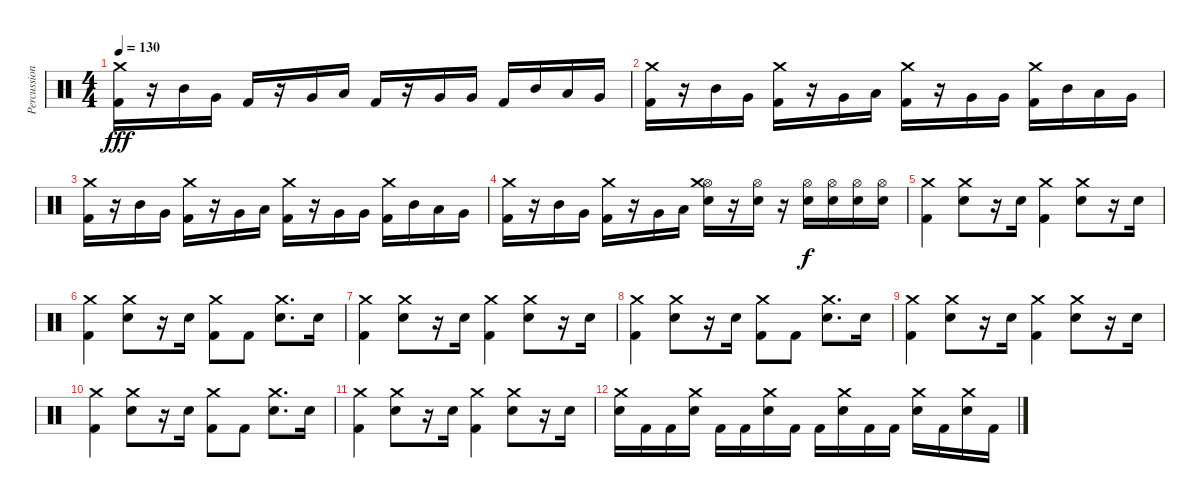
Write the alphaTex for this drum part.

\track ("Percussions" "Percussion") {instrument percussion}
\staff {score}
\articulation defaults
\ts (4 4)
\tempo 130
\clef neutral
\ks c
("Crash medium (hit)" "Kick (hit) 2").16{dy fff} r.16 "Mid Tom (hit)".16 "Very Low Tom (hit)".16 "Kick (hit) 2".16 r.16 "Very Low Tom (hit)".16 "Low Tom (hit)".16 "Kick (hit) 2".16 r.16 "Very Low Tom (hit)".16 "Very Low Tom (hit)".16 "Kick (hit) 2".16 "Mid Tom (hit)".16 "Low Tom (hit)".16 "Very Low Tom (hit)".16 |
("Crash medium (hit)" "Kick (hit) 2").16 r.16 "Mid Tom (hit)".16 "Very Low Tom (hit)".16 ("Kick (hit) 2" "Crash medium (hit)").16 r.16 "Very Low Tom (hit)".16 "Low Tom (hit)".16 ("Kick (hit) 2" "Crash medium (hit)").16 r.16 "Very Low Tom (hit)".16 "Very Low Tom (hit)".16 ("Kick (hit) 2" "Crash medium (hit)").16 "Mid Tom (hit)".16 "Low Tom (hit)".16 "Very Low Tom (hit)".16 |
("Crash medium (hit)" "Kick (hit) 2").16 r.16 "Mid Tom (hit)".16 "Very Low Tom (hit)".16 ("Kick (hit) 2" "Crash medium (hit)").16 r.16 "Very Low Tom (hit)".16 "Low Tom (hit)".16 ("Kick (hit) 2" "Crash medium (hit)").16 r.16 "Very Low Tom (hit)".16 "Very Low Tom (hit)".16 ("Kick (hit) 2" "Crash medium (hit)").16 "Mid Tom (hit)".16 "Low Tom (hit)".16 "Very Low Tom (hit)".16 |
("Crash medium (hit)" "Kick (hit) 2").16 r.16 "Mid Tom (hit)".16 "Very Low Tom (hit)".16 ("Crash medium (hit)" "Kick (hit) 2").16 r.16 "Very Low Tom (hit)".16 "Low Tom (hit)".16 ("Electric Snare (hit)" "Hi-Hat (open)" "Crash medium (hit)").16 r.16 ("Electric Snare (hit)" "Hi-Hat (open)").16 r.16 ("Electric Snare (hit)" "Hi-Hat (open)").16{dy f} ("Electric Snare (hit)" "Hi-Hat (open)").16 ("Electric Snare (hit)" "Hi-Hat (open)").16 ("Electric Snare (hit)" "Hi-Hat (open)").16 |
("Kick (hit) 2" "Crash medium (hit)").4 ("Electric Snare (hit)" "Crash medium (hit)").8 r.16 "Electric Snare (hit)".16 ("Kick (hit) 2" "Crash medium (hit)").4 ("Electric Snare (hit)" "Crash medium (hit)").8 r.16 "Electric Snare (hit)".16 |
("Kick (hit) 2" "Crash medium (hit)").4 ("Electric Snare (hit)" "Crash medium (hit)").8 r.16 "Electric Snare (hit)".16 ("Kick (hit) 2" "Crash medium (hit)").8 "Kick (hit) 2".8 ("Electric Snare (hit)" "Crash medium (hit)").8{d} "Electric Snare (hit)".16 |
("Kick (hit) 2" "Crash medium (hit)").4 ("Electric Snare (hit)" "Crash medium (hit)").8 r.16 "Electric Snare (hit)".16 ("Kick (hit) 2" "Crash medium (hit)").4 ("Electric Snare (hit)" "Crash medium (hit)").8 r.16 "Electric Snare (hit)".16 |
("Kick (hit) 2" "Crash medium (hit)").4 ("Electric Snare (hit)" "Crash medium (hit)").8 r.16 "Electric Snare (hit)".16 ("Kick (hit) 2" "Crash medium (hit)").8 "Kick (hit) 2".8 ("Electric Snare (hit)" "Crash medium (hit)").8{d} "Electric Snare (hit)".16 |
("Kick (hit) 2" "Crash medium (hit)").4 ("Electric Snare (hit)" "Crash medium (hit)").8 r.16 "Electric Snare (hit)".16 ("Kick (hit) 2" "Crash medium (hit)").4 ("Electric Snare (hit)" "Crash medium (hit)").8 r.16 "Electric Snare (hit)".16 |
("Kick (hit) 2" "Crash medium (hit)").4 ("Electric Snare (hit)" "Crash medium (hit)").8 r.16 "Electric Snare (hit)".16 ("Kick (hit) 2" "Crash medium (hit)").8 "Kick (hit) 2".8 ("Electric Snare (hit)" "Crash medium (hit)").8{d} "Electric Snare (hit)".16 |
("Kick (hit) 2" "Crash medium (hit)").4 ("Electric Snare (hit)" "Crash medium (hit)").8 r.16 "Electric Snare (hit)".16 ("Kick (hit) 2" "Crash medium (hit)").4 ("Electric Snare (hit)" "Crash medium (hit)").8 r.16 "Electric Snare (hit)".16 |
("Crash medium (hit)" "Electric Snare (hit)").16 "Kick (hit) 2".16 "Kick (hit) 2".16 ("Crash medium (hit)" "Electric Snare (hit)").16 "Kick (hit) 2".16 "Kick (hit) 2".16 ("Crash medium (hit)" "Electric Snare (hit)").16 "Kick (hit) 2".16 "Kick (hit) 2".16 ("Crash medium (hit)" "Electric Snare (hit)").16 "Kick (hit) 2".16 "Kick (hit) 2".16 ("Crash medium (hit)" "Electric Snare (hit)").16 "Kick (hit) 2".16 ("Crash medium (hit)" "Electric Snare (hit)").16 "Kick (hit) 2".16
